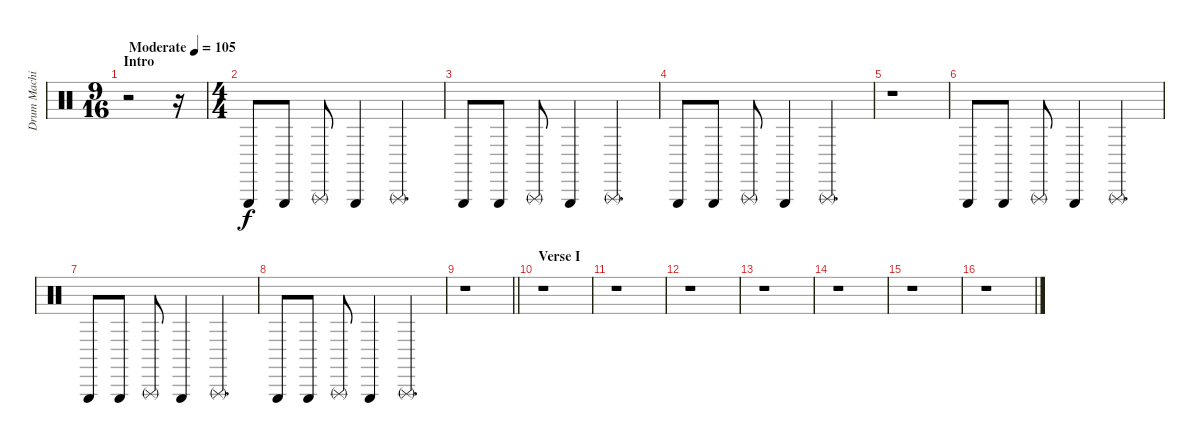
\track ("Drum Machine" "Drum Machi") {instrument percussion}
\staff {score}
\articulation defaults
\ts (9 16)
\section ("" "Intro")
\tempo (105 "Moderate")
\clef neutral
\ks c
r.2{dy f} r.16 |
\ts (4 4)
"Triangle (hit)".8 "Triangle (hit)".8 "Triangle (rnute)".8 "Triangle (hit)".4 "Triangle (rnute)".4{d} |
"Triangle (hit)".8 "Triangle (hit)".8 "Triangle (rnute)".8 "Triangle (hit)".4 "Triangle (rnute)".4{d} |
"Triangle (hit)".8 "Triangle (hit)".8 "Triangle (rnute)".8 "Triangle (hit)".4 "Triangle (rnute)".4{d} |
r.1 |
"Triangle (hit)".8 "Triangle (hit)".8 "Triangle (rnute)".8 "Triangle (hit)".4 "Triangle (rnute)".4{d} |
"Triangle (hit)".8 "Triangle (hit)".8 "Triangle (rnute)".8 "Triangle (hit)".4 "Triangle (rnute)".4{d} |
"Triangle (hit)".8 "Triangle (hit)".8 "Triangle (rnute)".8 "Triangle (hit)".4 "Triangle (rnute)".4{d} |
\barLineRight lightlight
r.1 |
\section ("" "Verse I")
r.1 |
r.1 |
r.1 |
r.1 |
r.1 |
r.1 |
r.1
